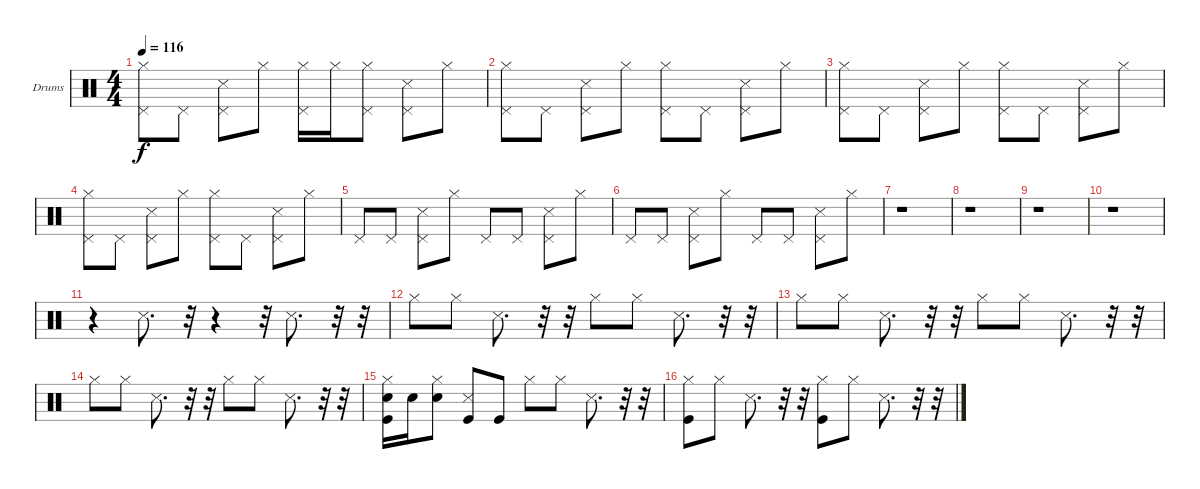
\bracketExtendMode groupsimilarinstruments
\firstSystemTrackNameOrientation horizontal
\otherSystemsTrackNameOrientation horizontal
\track ("Drumkit" "Drums") {instrument percussion}
\staff {score}
\articulation defaults
\ts (4 4)
\tempo 116
\clef neutral
\ks c
("Hi-Hat (closed)" "Pedal Hi-Hat (hit)").8{dy f} "Pedal Hi-Hat (hit)".8 ("Snare (side stick) 3" "Pedal Hi-Hat (hit)").8 "Hi-Hat (closed)".8 ("Hi-Hat (closed)" "Pedal Hi-Hat (hit)").16 "Hi-Hat (closed)".16 ("Hi-Hat (closed)" "Pedal Hi-Hat (hit)").8 ("Snare (side stick) 3" "Pedal Hi-Hat (hit)").8 "Hi-Hat (closed)".8 |
("Hi-Hat (closed)" "Pedal Hi-Hat (hit)").8 "Pedal Hi-Hat (hit)".8 ("Snare (side stick) 3" "Pedal Hi-Hat (hit)").8 "Hi-Hat (closed)".8 ("Hi-Hat (closed)" "Pedal Hi-Hat (hit)").8 "Pedal Hi-Hat (hit)".8 ("Snare (side stick) 3" "Pedal Hi-Hat (hit)").8 "Hi-Hat (closed)".8 |
("Hi-Hat (closed)" "Pedal Hi-Hat (hit)").8 "Pedal Hi-Hat (hit)".8 ("Snare (side stick) 3" "Pedal Hi-Hat (hit)").8 "Hi-Hat (closed)".8 ("Hi-Hat (closed)" "Pedal Hi-Hat (hit)").8 "Pedal Hi-Hat (hit)".8 ("Snare (side stick) 3" "Pedal Hi-Hat (hit)").8 "Hi-Hat (closed)".8 |
("Hi-Hat (closed)" "Pedal Hi-Hat (hit)").8 "Pedal Hi-Hat (hit)".8 ("Snare (side stick) 3" "Pedal Hi-Hat (hit)").8 "Hi-Hat (closed)".8 ("Hi-Hat (closed)" "Pedal Hi-Hat (hit)").8 "Pedal Hi-Hat (hit)".8 ("Snare (side stick) 3" "Pedal Hi-Hat (hit)").8 "Hi-Hat (closed)".8 |
"Pedal Hi-Hat (hit)".8 "Pedal Hi-Hat (hit)".8 ("Snare (side stick) 3" "Pedal Hi-Hat (hit)").8 "Hi-Hat (closed)".8 "Pedal Hi-Hat (hit)".8 "Pedal Hi-Hat (hit)".8 ("Snare (side stick) 3" "Pedal Hi-Hat (hit)").8 "Hi-Hat (closed)".8 |
"Pedal Hi-Hat (hit)".8 "Pedal Hi-Hat (hit)".8 ("Snare (side stick) 3" "Pedal Hi-Hat (hit)").8 "Hi-Hat (closed)".8 "Pedal Hi-Hat (hit)".8 "Pedal Hi-Hat (hit)".8 ("Snare (side stick) 3" "Pedal Hi-Hat (hit)").8 "Hi-Hat (closed)".8 |
r.1 |
r.1 |
r.1 |
r.1 |
r.4 "Snare (side stick) 3".8{d} r.32 r.4 r.32 "Snare (side stick) 3".8{d} r.32 r.32 |
"Hi-Hat (closed)".8 "Hi-Hat (closed)".8 "Snare (side stick) 3".8{d} r.32 r.32 "Hi-Hat (closed)".8 "Hi-Hat (closed)".8 "Snare (side stick) 3".8{d} r.32 r.32 |
"Hi-Hat (closed)".8 "Hi-Hat (closed)".8 "Snare (side stick) 3".8{d} r.32 r.32 "Hi-Hat (closed)".8 "Hi-Hat (closed)".8 "Snare (side stick) 3".8{d} r.32 r.32 |
"Hi-Hat (closed)".8 "Hi-Hat (closed)".8 "Snare (side stick) 3".8{d} r.32 r.32 "Hi-Hat (closed)".8 "Hi-Hat (closed)".8 "Snare (side stick) 3".8{d} r.32 r.32 |
("Kick (hit)" "Snare (hit) 2" "Hi-Hat (closed)").16 "Snare (hit) 2".16 ("Snare (hit) 2" "Hi-Hat (closed)").8 ("Snare (side stick) 3" "Kick (hit)").8 "Kick (hit)".8 "Hi-Hat (closed)".8 "Hi-Hat (closed)".8 "Snare (side stick) 3".8{d} r.32 r.32 |
("Kick (hit)" "Hi-Hat (closed)").8 "Hi-Hat (closed)".8 "Snare (side stick) 3".8{d} r.32 r.32 ("Kick (hit)" "Hi-Hat (closed)").8 "Hi-Hat (closed)".8 "Snare (side stick) 3".8{d} r.32 r.32
